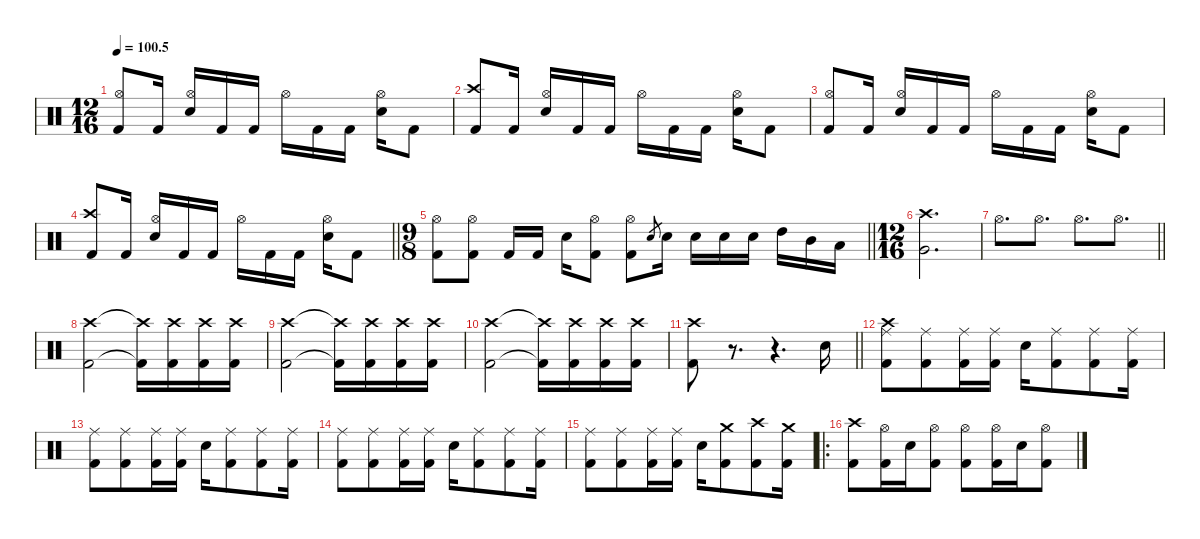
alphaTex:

\defaultSystemsLayout 4
\hideDynamics
\bracketExtendMode nobrackets
\singleTrackTrackNamePolicy hidden
\multiTrackTrackNamePolicy hidden
\firstSystemTrackNameMode fullname
\firstSystemTrackNameOrientation horizontal
\otherSystemsTrackNameOrientation horizontal
\track ("Drums" "drm.") {instrument percussion}
\staff {score}
\articulation defaults
\ts (12 16)
\tempo
100.5
\accidentals auto
\clef neutral
\ottava regular
\simile none
\ks c
("Hi-Hat (open)" "Kick (hit) 2").8{dy f beam Up} "Kick (hit) 2".16{dy ff beam Up} ("Hi-Hat (open)" "Snare (hit) 2").16{dy f beam Up} "Kick (hit) 2".16{dy ff beam Up} "Kick (hit) 2".16{beam Up} "Hi-Hat (open)".16{dy f beam Down} "Kick (hit) 2".16{dy ff beam Down} "Kick (hit) 2".16{beam Down} ("Hi-Hat (open)" "Snare (hit) 2").16{dy f beam Down} "Kick (hit) 2".8{dy ff beam Down} |
("Crash high (hit)" "Kick (hit) 2").8{dy f beam Up} "Kick (hit) 2".16{dy ff beam Up} ("Hi-Hat (open)" "Snare (hit) 2").16{dy f beam Up} "Kick (hit) 2".16{dy ff beam Up} "Kick (hit) 2".16{beam Up} "Hi-Hat (open)".16{dy f beam Down} "Kick (hit) 2".16{dy ff beam Down} "Kick (hit) 2".16{beam Down} ("Hi-Hat (open)" "Snare (hit) 2").16{dy f beam Down} "Kick (hit) 2".8{dy ff beam Down} |
("Hi-Hat (open)" "Kick (hit) 2").8{dy f beam Up} "Kick (hit) 2".16{dy ff beam Up} ("Hi-Hat (open)" "Snare (hit) 2").16{dy f beam Up} "Kick (hit) 2".16{dy ff beam Up} "Kick (hit) 2".16{beam Up} "Hi-Hat (open)".16{dy f beam Down} "Kick (hit) 2".16{dy ff beam Down} "Kick (hit) 2".16{beam Down} ("Hi-Hat (open)" "Snare (hit) 2").16{dy f beam Down} "Kick (hit) 2".8{dy ff beam Down} |
\barLineRight lightlight
("Crash high (hit)" "Kick (hit) 2").8{dy f beam Up} "Kick (hit) 2".16{dy ff beam Up} ("Hi-Hat (open)" "Snare (hit) 2").16{dy f beam Up} "Kick (hit) 2".16{dy ff beam Up} "Kick (hit) 2".16{beam Up} "Hi-Hat (open)".16{dy f beam Down} "Kick (hit) 2".16{dy ff beam Down} "Kick (hit) 2".16{beam Down} ("Hi-Hat (open)" "Snare (hit) 2").16{dy f beam Down} "Kick (hit) 2".8{dy ff beam Down} |
\ts (9 8)
\beaming (8 3 3)
\barLineRight lightlight
("Hi-Hat (open)" "Kick (hit) 2").8{dy f beam Down} ("Hi-Hat (open)" "Kick (hit) 2").8{beam Down beam split} "Kick (hit) 2".16{beam Up} "Kick (hit) 2".16{beam Up} "Snare (hit) 2".16{beam Down} ("Hi-Hat (open)" "Kick (hit) 2").8{beam Down beam split} ("Hi-Hat (open)" "Kick (hit) 2").8{beam Down} "Electric Snare (hit)".8{gr dy mf beam Up} "Snare (hit) 2".16{dy f beam Down} "Snare (hit) 2".16{beam Down beam merge} "Snare (hit) 2".16{beam Down beam merge} "Snare (hit) 2".16{beam Down beam split} "High Tom (hit)".16{beam Down beam merge} "Mid Tom (hit)".16{beam Down beam merge} "Low Tom (hit)".16{beam Down} |
\ts (12 16)
\beaming (8 3 3)
("Crash high (hit)" "Very Low Tom (hit)").2{d beam Down} |
\barLineRight lightlight "Hi-Hat (open)".8{d beam Down} "Hi-Hat (open)".8{d beam Down} "Hi-Hat (open)".8{d beam Down} "Hi-Hat (open)".8{d beam Down}
|
("Crash high (hit)" "Kick (hit) 2").2{beam Down} ("Crash high (hit)"{t} "Kick (hit) 2"{t}).16{beam Down} ("Crash high (hit)" "Kick (hit) 2").16{dy mf beam Down} ("Crash high (hit)" "Kick (hit) 2").16{dy f beam Down} ("Crash high (hit)" "Kick (hit) 2").16{dy mf beam Down} |
("Crash high (hit)" "Kick (hit) 2").2{dy f beam Down} ("Crash high (hit)"{t} "Kick (hit) 2"{t}).16{beam Down} ("Crash high (hit)" "Kick (hit) 2").16{dy mf beam Down} ("Crash high (hit)" "Kick (hit) 2").16{dy f beam Down} ("Crash high (hit)" "Kick (hit) 2").16{dy mf beam Down} |
("Crash high (hit)" "Kick (hit) 2").2{dy f beam Down} ("Crash high (hit)"{t} "Kick (hit) 2"{t}).16{beam Down} ("Crash high (hit)" "Kick (hit) 2").16{dy mf beam Down} ("Crash high (hit)" "Kick (hit) 2").16{dy f beam Down} ("Crash high (hit)" "Kick (hit) 2").16{dy mf beam Down} |
\barLineRight lightlight
("Crash high (hit)" "Kick (hit) 2").8{dy f beam Down} r.8{d beam Down} r.4{d beam Down} "Snare (hit) 2".16{beam Down} |
("Ride (middle)" "Crash high (hit)" "Kick (hit) 2").8{beam Down} ("Ride (middle)" "Kick (hit) 2").8{beam Down} ("Ride (middle)" "Kick (hit) 2").16{beam Down} ("Ride (middle)" "Kick (hit) 2").16{beam Down} "Snare (hit) 2".16{beam Down} ("Ride (middle)" "Kick (hit) 2").8{beam Down} ("Ride (middle)" "Kick (hit) 2").8{beam Down} ("Ride (middle)" "Kick (hit) 2").16{beam Down} |
("Ride (middle)" "Kick (hit) 2").8{beam Down} ("Ride (middle)" "Kick (hit) 2").8{beam Down} ("Ride (middle)" "Kick (hit) 2").16{beam Down} ("Ride (middle)" "Kick (hit) 2").16{beam Down} "Snare (hit) 2".16{beam Down} ("Ride (middle)" "Kick (hit) 2").8{beam Down} ("Ride (middle)" "Kick (hit) 2").8{beam Down} ("Ride (middle)" "Kick (hit) 2").16{beam Down} |
("Ride (middle)" "Kick (hit) 2").8{beam Down} ("Ride (middle)" "Kick (hit) 2").8{beam Down} ("Ride (middle)" "Kick (hit) 2").16{beam Down} ("Ride (middle)" "Kick (hit) 2").16{beam Down} "Snare (hit) 2".16{beam Down} ("Ride (middle)" "Kick (hit) 2").8{beam Down} ("Ride (middle)" "Kick (hit) 2").8{beam Down} ("Ride (middle)" "Kick (hit) 2").16{beam Down} |
("Ride (middle)" "Kick (hit) 2").8{beam Down} ("Ride (middle)" "Kick (hit) 2").8{beam Down} ("Ride (middle)" "Kick (hit) 2").16{beam Down} ("Ride (middle)" "Kick (hit) 2").16{beam Down} "Snare (hit) 2".16{beam Down} ("Crash medium (hit)" "Kick (hit) 2").8{beam Down} ("Crash high (hit)" "Kick (hit) 2").8{beam Down} ("Crash medium (hit)" "Kick (hit) 2").16{beam Down} |
\ro
("Crash high (hit)" "Kick (hit) 2").8{beam Down} ("Hi-Hat (open)" "Kick (hit) 2").16{dy mf beam Down} "Snare (hit) 2".16{dy f beam Down} ("Hi-Hat (open)" "Kick (hit) 2").8{dy mf beam Down} ("Hi-Hat (open)" "Kick (hit) 2").8{beam Down} ("Hi-Hat (open)" "Kick (hit) 2").16{beam Down} "Snare (hit) 2".16{dy f beam Down} ("Hi-Hat (open)" "Kick (hit) 2").8{dy mf beam Down}
